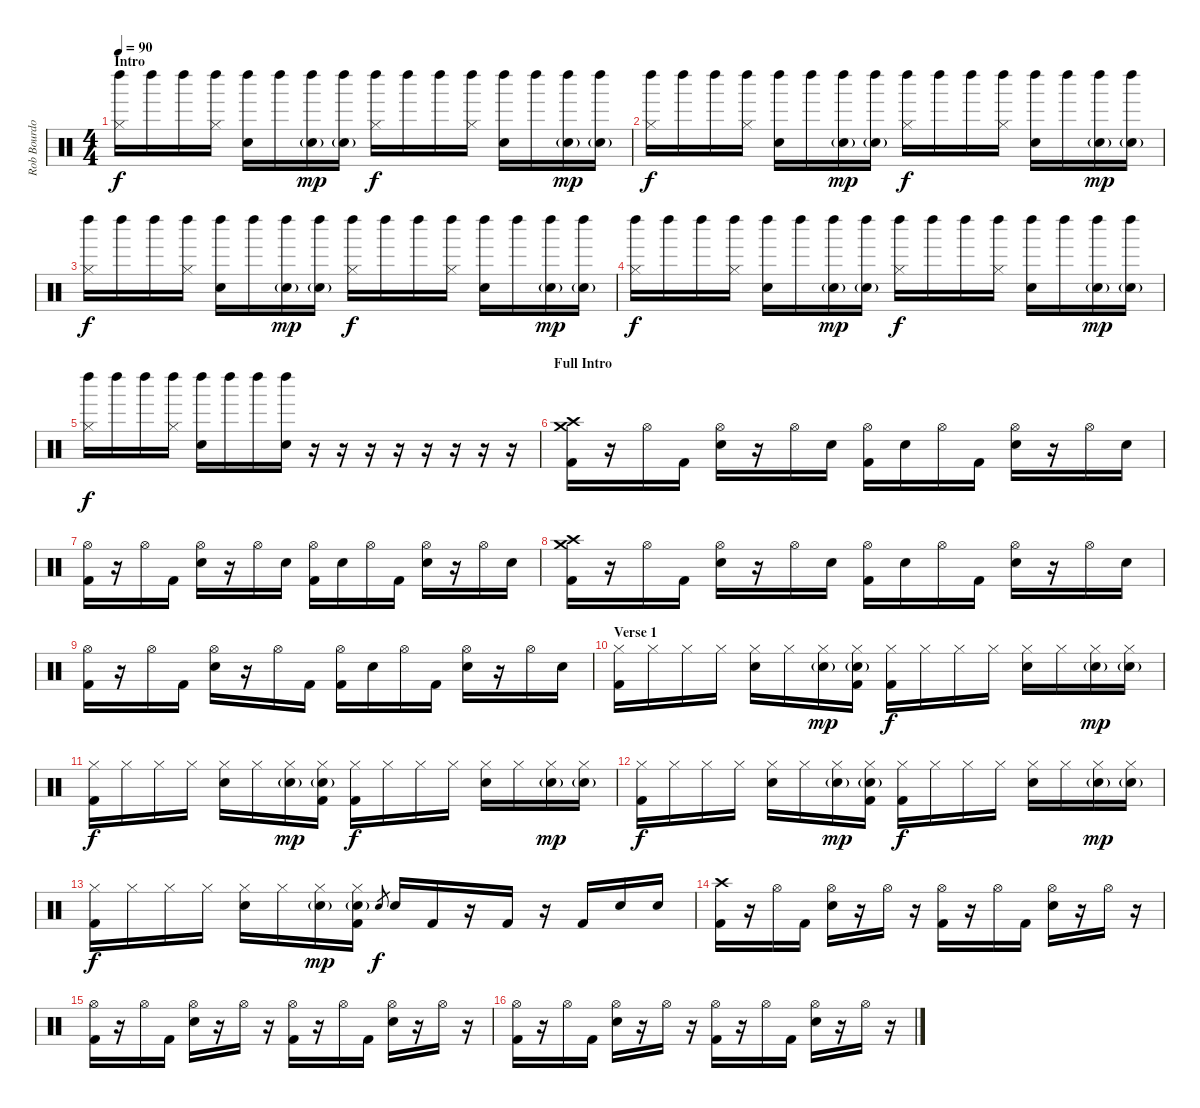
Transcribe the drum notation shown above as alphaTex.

\track ("Rob Bourdon (Drums)" "Rob Bourdo") {instrument percussion}
\staff {score}
\articulation defaults
\ts (4 4)
\section ("" "Intro")
\tempo 90
\clef neutral
\ks c
("Left Maraca (hit)" "Hi-Hat (closed)").16{dy f} "Left Maraca (hit)".16 "Left Maraca (hit)".16 ("Left Maraca (hit)" "Hi-Hat (closed)").16 ("Left Maraca (hit)" "Hand Clap (hit)").16 "Left Maraca (hit)".16 ("Left Maraca (hit)" "Hand Clap (hit)"{g}).16{dy mp} ("Left Maraca (hit)" "Hand Clap (hit)"{g}).16 ("Left Maraca (hit)" "Hi-Hat (closed)").16{dy f} "Left Maraca (hit)".16 "Left Maraca (hit)".16 ("Left Maraca (hit)" "Hi-Hat (closed)").16 ("Left Maraca (hit)" "Hand Clap (hit)").16 "Left Maraca (hit)".16 ("Left Maraca (hit)" "Hand Clap (hit)"{g}).16{dy mp} ("Left Maraca (hit)" "Hand Clap (hit)"{g}).16 |
("Left Maraca (hit)" "Hi-Hat (closed)").16{dy f} "Left Maraca (hit)".16 "Left Maraca (hit)".16 ("Left Maraca (hit)" "Hi-Hat (closed)").16 ("Left Maraca (hit)" "Hand Clap (hit)").16 "Left Maraca (hit)".16 ("Left Maraca (hit)" "Hand Clap (hit)"{g}).16{dy mp} ("Left Maraca (hit)" "Hand Clap (hit)"{g}).16 ("Left Maraca (hit)" "Hi-Hat (closed)").16{dy f} "Left Maraca (hit)".16 "Left Maraca (hit)".16 ("Left Maraca (hit)" "Hi-Hat (closed)").16 ("Left Maraca (hit)" "Hand Clap (hit)").16 "Left Maraca (hit)".16 ("Left Maraca (hit)" "Hand Clap (hit)"{g}).16{dy mp} ("Left Maraca (hit)" "Hand Clap (hit)"{g}).16 |
("Left Maraca (hit)" "Hi-Hat (closed)").16{dy f} "Left Maraca (hit)".16 "Left Maraca (hit)".16 ("Left Maraca (hit)" "Hi-Hat (closed)").16 ("Left Maraca (hit)" "Hand Clap (hit)").16 "Left Maraca (hit)".16 ("Left Maraca (hit)" "Hand Clap (hit)"{g}).16{dy mp} ("Left Maraca (hit)" "Hand Clap (hit)"{g}).16 ("Left Maraca (hit)" "Hi-Hat (closed)").16{dy f} "Left Maraca (hit)".16 "Left Maraca (hit)".16 ("Left Maraca (hit)" "Hi-Hat (closed)").16 ("Left Maraca (hit)" "Hand Clap (hit)").16 "Left Maraca (hit)".16 ("Left Maraca (hit)" "Hand Clap (hit)"{g}).16{dy mp} ("Left Maraca (hit)" "Hand Clap (hit)"{g}).16 |
("Left Maraca (hit)" "Hi-Hat (closed)").16{dy f} "Left Maraca (hit)".16 "Left Maraca (hit)".16 ("Left Maraca (hit)" "Hi-Hat (closed)").16 ("Left Maraca (hit)" "Hand Clap (hit)").16 "Left Maraca (hit)".16 ("Left Maraca (hit)" "Hand Clap (hit)"{g}).16{dy mp} ("Left Maraca (hit)" "Hand Clap (hit)"{g}).16 ("Left Maraca (hit)" "Hi-Hat (closed)").16{dy f} "Left Maraca (hit)".16 "Left Maraca (hit)".16 ("Left Maraca (hit)" "Hi-Hat (closed)").16 ("Left Maraca (hit)" "Hand Clap (hit)").16 "Left Maraca (hit)".16 ("Left Maraca (hit)" "Hand Clap (hit)"{g}).16{dy mp} ("Left Maraca (hit)" "Hand Clap (hit)"{g}).16 |
("Left Maraca (hit)" "Hi-Hat (closed)").16{dy f} "Left Maraca (hit)".16 "Left Maraca (hit)".16 ("Left Maraca (hit)" "Hi-Hat (closed)").16 ("Left Maraca (hit)" "Hand Clap (hit)").16 "Left Maraca (hit)".16 "Left Maraca (hit)".16 ("Left Maraca (hit)" "Hand Clap (hit)").16 r.16 r.16 r.16 r.16 r.16 r.16 r.16 r.16 |
\section ("" "Full Intro")
("Crash high (hit)" "Crash medium (hit)" "Kick (hit) 2").16 r.16 "Hi-Hat (open)".16 "Kick (hit) 2".16 ("Hi-Hat (open)" "Electric Snare (hit)").16 r.16 "Hi-Hat (open)".16 "Electric Snare (hit)".16 ("Hi-Hat (open)" "Kick (hit) 2").16 "Electric Snare (hit)".16 "Hi-Hat (open)".16 "Kick (hit) 2".16 ("Hi-Hat (open)" "Electric Snare (hit)").16 r.16 "Hi-Hat (open)".16 "Electric Snare (hit)".16 |
("Hi-Hat (open)" "Kick (hit) 2").16 r.16 "Hi-Hat (open)".16 "Kick (hit) 2".16 ("Hi-Hat (open)" "Electric Snare (hit)").16 r.16 "Hi-Hat (open)".16 "Electric Snare (hit)".16 ("Hi-Hat (open)" "Kick (hit) 2").16 "Electric Snare (hit)".16 "Hi-Hat (open)".16 "Kick (hit) 2".16 ("Hi-Hat (open)" "Electric Snare (hit)").16 r.16 "Hi-Hat (open)".16 "Electric Snare (hit)".16 |
("Crash high (hit)" "Crash medium (hit)" "Kick (hit) 2").16 r.16 "Hi-Hat (open)".16 "Kick (hit) 2".16 ("Hi-Hat (open)" "Electric Snare (hit)").16 r.16 "Hi-Hat (open)".16 "Electric Snare (hit)".16 ("Hi-Hat (open)" "Kick (hit) 2").16 "Electric Snare (hit)".16 "Hi-Hat (open)".16 "Kick (hit) 2".16 ("Hi-Hat (open)" "Electric Snare (hit)").16 r.16 "Hi-Hat (open)".16 "Electric Snare (hit)".16 |
("Hi-Hat (open)" "Kick (hit) 2").16 r.16 "Hi-Hat (open)".16 "Kick (hit) 2".16 ("Hi-Hat (open)" "Electric Snare (hit)").16 r.16 "Hi-Hat (open)".16 "Kick (hit) 2".16 ("Hi-Hat (open)" "Kick (hit) 2").16 "Electric Snare (hit)".16 "Hi-Hat (open)".16 "Kick (hit) 2".16 ("Hi-Hat (open)" "Electric Snare (hit)").16 r.16 "Hi-Hat (open)".16 "Electric Snare (hit)".16 |
\section ("" "Verse 1")
("Hi-Hat (closed)" "Kick (hit) 2").16 "Hi-Hat (closed)".16 "Hi-Hat (closed)".16 "Hi-Hat (closed)".16 ("Hi-Hat (closed)" "Hand Clap (hit)").16 "Hi-Hat (closed)".16 ("Hi-Hat (closed)" "Hand Clap (hit)"{g}).16{dy mp} ("Hi-Hat (closed)" "Hand Clap (hit)"{g} "Kick (hit) 2").16 ("Hi-Hat (closed)" "Kick (hit) 2").16{dy f} "Hi-Hat (closed)".16 "Hi-Hat (closed)".16 "Hi-Hat (closed)".16 ("Hi-Hat (closed)" "Hand Clap (hit)").16 "Hi-Hat (closed)".16 ("Hi-Hat (closed)" "Hand Clap (hit)"{g}).16{dy mp} ("Hi-Hat (closed)" "Hand Clap (hit)"{g}).16 |
("Hi-Hat (closed)" "Kick (hit) 2").16{dy f} "Hi-Hat (closed)".16 "Hi-Hat (closed)".16 "Hi-Hat (closed)".16 ("Hi-Hat (closed)" "Hand Clap (hit)").16 "Hi-Hat (closed)".16 ("Hi-Hat (closed)" "Hand Clap (hit)"{g}).16{dy mp} ("Hi-Hat (closed)" "Hand Clap (hit)"{g} "Kick (hit) 2").16 ("Hi-Hat (closed)" "Kick (hit) 2").16{dy f} "Hi-Hat (closed)".16 "Hi-Hat (closed)".16 "Hi-Hat (closed)".16 ("Hi-Hat (closed)" "Hand Clap (hit)").16 "Hi-Hat (closed)".16 ("Hi-Hat (closed)" "Hand Clap (hit)"{g}).16{dy mp} ("Hi-Hat (closed)" "Hand Clap (hit)"{g}).16 |
("Hi-Hat (closed)" "Kick (hit) 2").16{dy f} "Hi-Hat (closed)".16 "Hi-Hat (closed)".16 "Hi-Hat (closed)".16 ("Hi-Hat (closed)" "Hand Clap (hit)").16 "Hi-Hat (closed)".16 ("Hi-Hat (closed)" "Hand Clap (hit)"{g}).16{dy mp} ("Hi-Hat (closed)" "Hand Clap (hit)"{g} "Kick (hit) 2").16 ("Hi-Hat (closed)" "Kick (hit) 2").16{dy f} "Hi-Hat (closed)".16 "Hi-Hat (closed)".16 "Hi-Hat (closed)".16 ("Hi-Hat (closed)" "Hand Clap (hit)").16 "Hi-Hat (closed)".16 ("Hi-Hat (closed)" "Hand Clap (hit)"{g}).16{dy mp} ("Hi-Hat (closed)" "Hand Clap (hit)"{g}).16 |
("Hi-Hat (closed)" "Kick (hit) 2").16{dy f} "Hi-Hat (closed)".16 "Hi-Hat (closed)".16 "Hi-Hat (closed)".16 ("Hi-Hat (closed)" "Hand Clap (hit)").16 "Hi-Hat (closed)".16 ("Hi-Hat (closed)" "Hand Clap (hit)"{g}).16{dy mp} ("Hi-Hat (closed)" "Hand Clap (hit)"{g} "Kick (hit) 2").16 "Electric Snare (hit)".8{gr dy f} "Electric Snare (hit)".16 "Kick (hit) 2".16 r.16 "Kick (hit) 2".16 r.16 "Kick (hit) 2".16 "Electric Snare (hit)".16 "Electric Snare (hit)".16 |
("Crash high (hit)" "Kick (hit) 2").16 r.16 "Hi-Hat (open)".16 "Kick (hit) 2".16 ("Hi-Hat (open)" "Electric Snare (hit)").16 r.16 "Hi-Hat (open)".16 r.16 ("Hi-Hat (open)" "Kick (hit) 2").16 r.16 "Hi-Hat (open)".16 "Kick (hit) 2".16 ("Hi-Hat (open)" "Electric Snare (hit)").16 r.16 "Hi-Hat (open)".16 r.16 |
("Hi-Hat (open)" "Kick (hit) 2").16 r.16 "Hi-Hat (open)".16 "Kick (hit) 2".16 ("Hi-Hat (open)" "Electric Snare (hit)").16 r.16 "Hi-Hat (open)".16 r.16 ("Hi-Hat (open)" "Kick (hit) 2").16 r.16 "Hi-Hat (open)".16 "Kick (hit) 2".16 ("Hi-Hat (open)" "Electric Snare (hit)").16 r.16 "Hi-Hat (open)".16 r.16 |
("Hi-Hat (open)" "Kick (hit) 2").16 r.16 "Hi-Hat (open)".16 "Kick (hit) 2".16 ("Hi-Hat (open)" "Electric Snare (hit)").16 r.16 "Hi-Hat (open)".16 r.16 ("Hi-Hat (open)" "Kick (hit) 2").16 r.16 "Hi-Hat (open)".16 "Kick (hit) 2".16 ("Hi-Hat (open)" "Electric Snare (hit)").16 r.16 "Hi-Hat (open)".16 r.16
